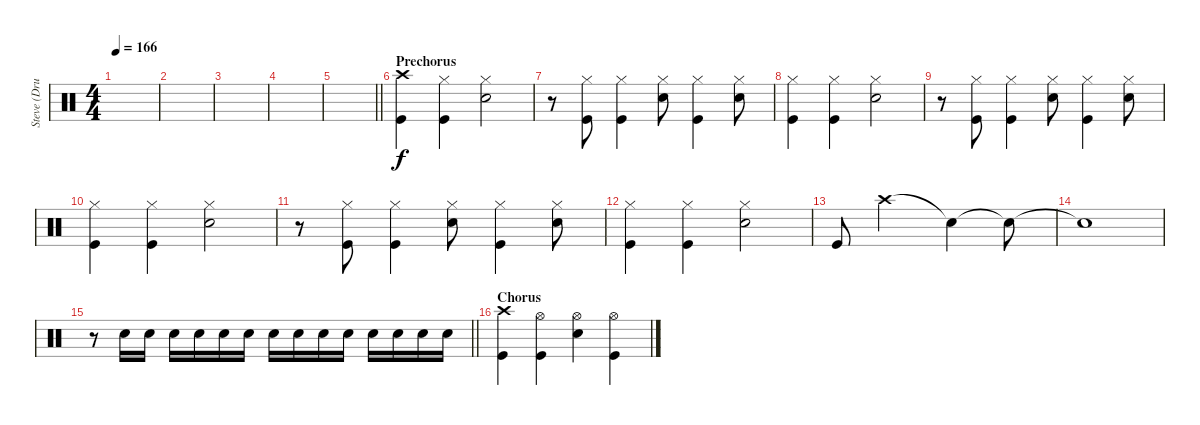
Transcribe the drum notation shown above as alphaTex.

\track ("Steve (Drums)" "Steve (Dru") {instrument percussion}
\staff {score}
\articulation defaults
\ts (4 4)
\tempo 166
\clef neutral
\ks c
|
|
|
|
\barLineRight lightlight
|
\section ("" "Prechorus")
("Crash high (hit)" "Kick (hit)").4 ("Hi-Hat (closed)" "Kick (hit)").4 ("Hi-Hat (closed)" "Electric Snare (hit)").2 |
r.8 ("Hi-Hat (closed)" "Kick (hit)").8 ("Hi-Hat (closed)" "Kick (hit)").4 ("Hi-Hat (closed)" "Electric Snare (hit)").8 ("Hi-Hat (closed)" "Kick (hit)").4 ("Hi-Hat (closed)" "Electric Snare (hit)").8 |
("Hi-Hat (closed)" "Kick (hit)").4 ("Hi-Hat (closed)" "Kick (hit)").4 ("Hi-Hat (closed)" "Electric Snare (hit)").2 |
r.8 ("Hi-Hat (closed)" "Kick (hit)").8 ("Hi-Hat (closed)" "Kick (hit)").4 ("Hi-Hat (closed)" "Electric Snare (hit)").8 ("Hi-Hat (closed)" "Kick (hit)").4 ("Hi-Hat (closed)" "Electric Snare (hit)").8 |
("Hi-Hat (closed)" "Kick (hit)").4 ("Hi-Hat (closed)" "Kick (hit)").4 ("Hi-Hat (closed)" "Electric Snare (hit)").2 |
r.8 ("Hi-Hat (closed)" "Kick (hit)").8 ("Hi-Hat (closed)" "Kick (hit)").4 ("Hi-Hat (closed)" "Electric Snare (hit)").8 ("Hi-Hat (closed)" "Kick (hit)").4 ("Hi-Hat (closed)" "Electric Snare (hit)").8 |
("Hi-Hat (closed)" "Kick (hit)").4 ("Hi-Hat (closed)" "Kick (hit)").4 ("Hi-Hat (closed)" "Electric Snare (hit)").2 |
"Kick (hit)".8 "Crash high (hit)".2 "Snare (hit)"{t}.4 "Snare (hit)"{t}.8 |
"Snare (hit)"{t}.1 |
\barLineRight lightlight
r.8 "Electric Snare (hit)".16 "Electric Snare (hit)".16 "Electric Snare (hit)".16 "Electric Snare (hit)".16 "Electric Snare (hit)".16 "Electric Snare (hit)".16 "Electric Snare (hit)".16 "Electric Snare (hit)".16 "Electric Snare (hit)".16 "Electric Snare (hit)".16 "Electric Snare (hit)".16 "Electric Snare (hit)".16 "Electric Snare (hit)".16 "Electric Snare (hit)".16 |
\section ("" "Chorus")
("Crash high (hit)" "Kick (hit)").4 ("Hi-Hat (open)" "Kick (hit)").4 ("Hi-Hat (open)" "Electric Snare (hit)").4 ("Hi-Hat (open)" "Kick (hit)").4
